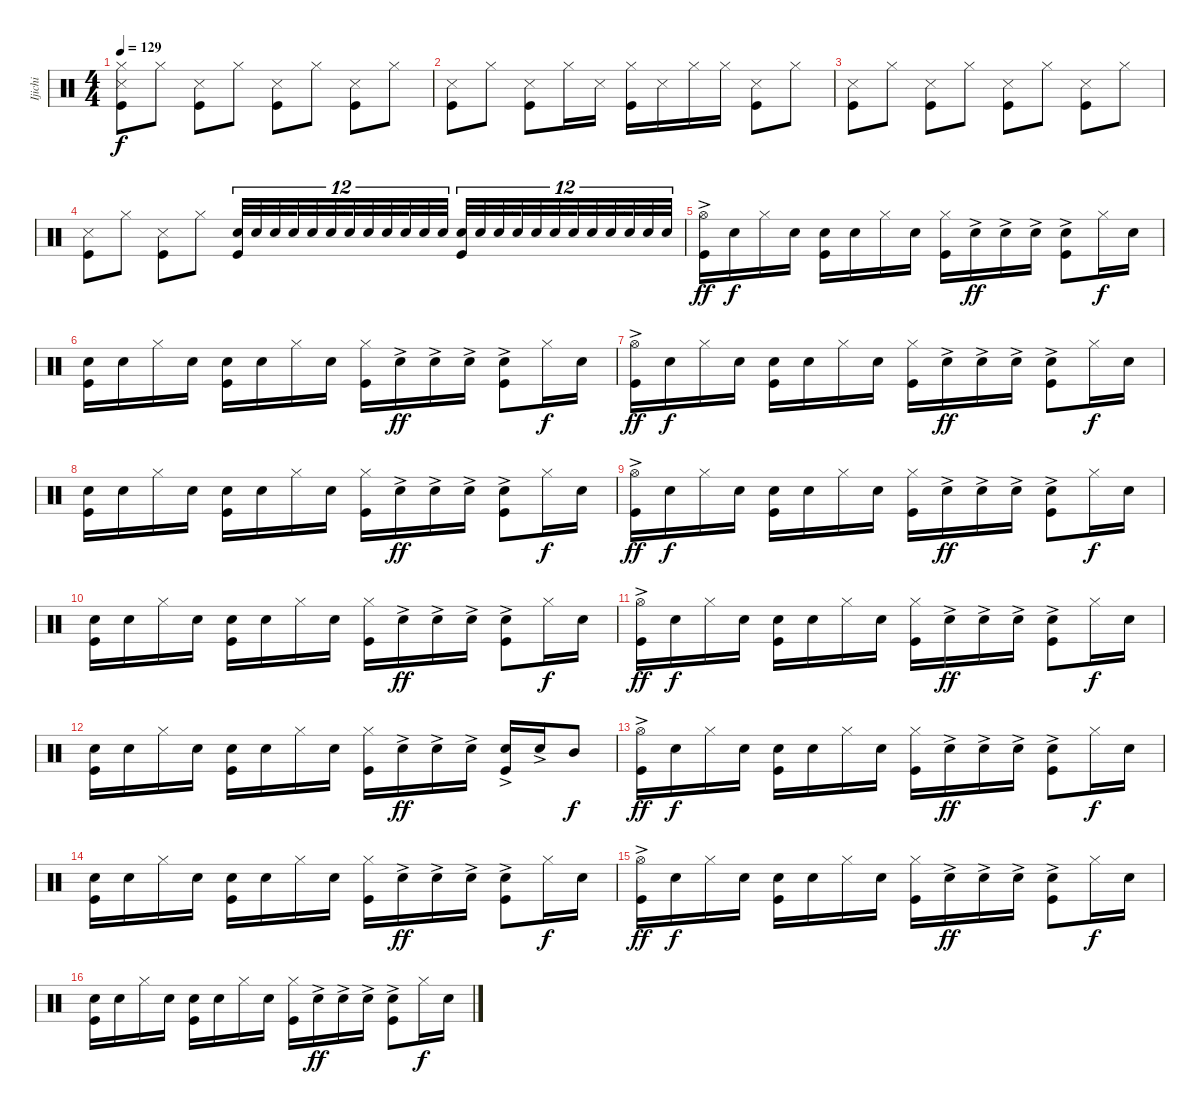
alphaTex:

\track ("Ijichi" "Ijichi") {instrument percussion}
\staff {score}
\articulation defaults
\ts (4 4)
\tempo 129
\clef neutral
\ks c
("Hi-Hat (closed)" "Snare (side stick) 3" "Kick (hit)").8{dy f} "Hi-Hat (closed)".8 ("Snare (side stick) 3" "Kick (hit)").8 "Hi-Hat (closed)".8 ("Snare (side stick) 3" "Kick (hit)").8 "Hi-Hat (closed)".8 ("Snare (side stick) 3" "Kick (hit)").8 "Hi-Hat (closed)".8 |
("Snare (side stick) 3" "Kick (hit)").8 "Hi-Hat (closed)".8 ("Snare (side stick) 3" "Kick (hit)").8 "Hi-Hat (closed)".16 "Snare (side stick) 3".16 ("Hi-Hat (closed)" "Kick (hit)").16 "Snare (side stick) 3".16 "Hi-Hat (closed)".16 "Hi-Hat (closed)".16 ("Snare (side stick) 3" "Kick (hit)").8 "Hi-Hat (closed)".8 |
("Snare (side stick) 3" "Kick (hit)").8 "Hi-Hat (closed)".8 ("Snare (side stick) 3" "Kick (hit)").8 "Hi-Hat (closed)".8 ("Snare (side stick) 3" "Kick (hit)").8 "Hi-Hat (closed)".8 ("Snare (side stick) 3" "Kick (hit)").8 "Hi-Hat (closed)".8 |
("Snare (side stick) 3" "Kick (hit)").8 "Hi-Hat (closed)".8 ("Snare (side stick) 3" "Kick (hit)").8 "Hi-Hat (closed)".8 ("Snare (hit) 2" "Kick (hit)").32{tu (12 8)} "Snare (hit) 2".32{tu (12 8)} "Snare (hit) 2".32{tu (12 8) beam splitsecondary} "Snare (hit) 2".32{tu (12 8)} "Snare (hit) 2".32{tu (12 8)} "Snare (hit) 2".32{tu (12 8) beam splitsecondary} "Snare (hit) 2".32{tu (12 8)} "Snare (hit) 2".32{tu (12 8)} "Snare (hit) 2".32{tu (12 8) beam splitsecondary} "Snare (hit) 2".32{tu (12 8)} "Snare (hit) 2".32{tu (12 8)} "Snare (hit) 2".32{tu (12 8)} ("Snare (hit) 2" "Kick (hit)").32{tu (12 8)} "Snare (hit) 2".32{tu (12 8)} "Snare (hit) 2".32{tu (12 8) beam splitsecondary} "Snare (hit) 2".32{tu (12 8)} "Snare (hit) 2".32{tu (12 8)} "Snare (hit) 2".32{tu (12 8) beam splitsecondary} "Snare (hit) 2".32{tu (12 8)} "Snare (hit) 2".32{tu (12 8)} "Snare (hit) 2".32{tu (12 8) beam splitsecondary} "Snare (hit) 2".32{tu (12 8)} "Snare (hit) 2".32{tu (12 8)} "Snare (hit) 2".32{tu (12 8)} |
("Hi-Hat (open)"{ac} "Kick (hit)").16{dy ff} "Snare (hit) 2".16{dy f} "Hi-Hat (closed)".16 "Snare (hit) 2".16 ("Snare (hit) 2" "Kick (hit)").16 "Snare (hit) 2".16 "Hi-Hat (closed)".16 "Snare (hit) 2".16 ("Hi-Hat (closed)" "Kick (hit)").16 "Snare (hit) 2"{ac}.16{dy ff} "Snare (hit) 2"{ac}.16 "Snare (hit) 2"{ac}.16 ("Snare (hit) 2"{ac} "Kick (hit)").8 "Hi-Hat (closed)".16{dy f} "Snare (hit) 2".16 |
("Snare (hit) 2" "Kick (hit)").16 "Snare (hit) 2".16 "Hi-Hat (closed)".16 "Snare (hit) 2".16 ("Snare (hit) 2" "Kick (hit)").16 "Snare (hit) 2".16 "Hi-Hat (closed)".16 "Snare (hit) 2".16 ("Hi-Hat (closed)" "Kick (hit)").16 "Snare (hit) 2"{ac}.16{dy ff} "Snare (hit) 2"{ac}.16 "Snare (hit) 2"{ac}.16 ("Snare (hit) 2"{ac} "Kick (hit)").8 "Hi-Hat (closed)".16{dy f} "Snare (hit) 2".16 |
("Hi-Hat (open)"{ac} "Kick (hit)").16{dy ff} "Snare (hit) 2".16{dy f} "Hi-Hat (closed)".16 "Snare (hit) 2".16 ("Snare (hit) 2" "Kick (hit)").16 "Snare (hit) 2".16 "Hi-Hat (closed)".16 "Snare (hit) 2".16 ("Hi-Hat (closed)" "Kick (hit)").16 "Snare (hit) 2"{ac}.16{dy ff} "Snare (hit) 2"{ac}.16 "Snare (hit) 2"{ac}.16 ("Snare (hit) 2"{ac} "Kick (hit)").8 "Hi-Hat (closed)".16{dy f} "Snare (hit) 2".16 |
("Snare (hit) 2" "Kick (hit)").16 "Snare (hit) 2".16 "Hi-Hat (closed)".16 "Snare (hit) 2".16 ("Snare (hit) 2" "Kick (hit)").16 "Snare (hit) 2".16 "Hi-Hat (closed)".16 "Snare (hit) 2".16 ("Hi-Hat (closed)" "Kick (hit)").16 "Snare (hit) 2"{ac}.16{dy ff} "Snare (hit) 2"{ac}.16 "Snare (hit) 2"{ac}.16 ("Snare (hit) 2"{ac} "Kick (hit)").8 "Hi-Hat (closed)".16{dy f} "Snare (hit) 2".16 |
("Hi-Hat (open)"{ac} "Kick (hit)").16{dy ff} "Snare (hit) 2".16{dy f} "Hi-Hat (closed)".16 "Snare (hit) 2".16 ("Snare (hit) 2" "Kick (hit)").16 "Snare (hit) 2".16 "Hi-Hat (closed)".16 "Snare (hit) 2".16 ("Hi-Hat (closed)" "Kick (hit)").16 "Snare (hit) 2"{ac}.16{dy ff} "Snare (hit) 2"{ac}.16 "Snare (hit) 2"{ac}.16 ("Snare (hit) 2"{ac} "Kick (hit)").8 "Hi-Hat (closed)".16{dy f} "Snare (hit) 2".16 |
("Snare (hit) 2" "Kick (hit)").16 "Snare (hit) 2".16 "Hi-Hat (closed)".16 "Snare (hit) 2".16 ("Snare (hit) 2" "Kick (hit)").16 "Snare (hit) 2".16 "Hi-Hat (closed)".16 "Snare (hit) 2".16 ("Hi-Hat (closed)" "Kick (hit)").16 "Snare (hit) 2"{ac}.16{dy ff} "Snare (hit) 2"{ac}.16 "Snare (hit) 2"{ac}.16 ("Snare (hit) 2"{ac} "Kick (hit)").8 "Hi-Hat (closed)".16{dy f} "Snare (hit) 2".16 |
("Hi-Hat (open)"{ac} "Kick (hit)").16{dy ff} "Snare (hit) 2".16{dy f} "Hi-Hat (closed)".16 "Snare (hit) 2".16 ("Snare (hit) 2" "Kick (hit)").16 "Snare (hit) 2".16 "Hi-Hat (closed)".16 "Snare (hit) 2".16 ("Hi-Hat (closed)" "Kick (hit)").16 "Snare (hit) 2"{ac}.16{dy ff} "Snare (hit) 2"{ac}.16 "Snare (hit) 2"{ac}.16 ("Snare (hit) 2"{ac} "Kick (hit)").8 "Hi-Hat (closed)".16{dy f} "Snare (hit) 2".16 |
("Snare (hit) 2" "Kick (hit)").16 "Snare (hit) 2".16 "Hi-Hat (closed)".16 "Snare (hit) 2".16 ("Snare (hit) 2" "Kick (hit)").16 "Snare (hit) 2".16 "Hi-Hat (closed)".16 "Snare (hit) 2".16 ("Hi-Hat (closed)" "Kick (hit)").16 "Snare (hit) 2"{ac}.16{dy ff} "Snare (hit) 2"{ac}.16 "Snare (hit) 2"{ac}.16 ("Snare (hit) 2"{ac} "Kick (hit)").16 "Snare (hit) 2"{ac}.16 "Mid Tom (hit)".8{dy f} |
("Hi-Hat (open)"{ac} "Kick (hit)").16{dy ff} "Snare (hit) 2".16{dy f} "Hi-Hat (closed)".16 "Snare (hit) 2".16 ("Snare (hit) 2" "Kick (hit)").16 "Snare (hit) 2".16 "Hi-Hat (closed)".16 "Snare (hit) 2".16 ("Hi-Hat (closed)" "Kick (hit)").16 "Snare (hit) 2"{ac}.16{dy ff} "Snare (hit) 2"{ac}.16 "Snare (hit) 2"{ac}.16 ("Snare (hit) 2"{ac} "Kick (hit)").8 "Hi-Hat (closed)".16{dy f} "Snare (hit) 2".16 |
("Snare (hit) 2" "Kick (hit)").16 "Snare (hit) 2".16 "Hi-Hat (closed)".16 "Snare (hit) 2".16 ("Snare (hit) 2" "Kick (hit)").16 "Snare (hit) 2".16 "Hi-Hat (closed)".16 "Snare (hit) 2".16 ("Hi-Hat (closed)" "Kick (hit)").16 "Snare (hit) 2"{ac}.16{dy ff} "Snare (hit) 2"{ac}.16 "Snare (hit) 2"{ac}.16 ("Snare (hit) 2"{ac} "Kick (hit)").8 "Hi-Hat (closed)".16{dy f} "Snare (hit) 2".16 |
("Hi-Hat (open)"{ac} "Kick (hit)").16{dy ff} "Snare (hit) 2".16{dy f} "Hi-Hat (closed)".16 "Snare (hit) 2".16 ("Snare (hit) 2" "Kick (hit)").16 "Snare (hit) 2".16 "Hi-Hat (closed)".16 "Snare (hit) 2".16 ("Hi-Hat (closed)" "Kick (hit)").16 "Snare (hit) 2"{ac}.16{dy ff} "Snare (hit) 2"{ac}.16 "Snare (hit) 2"{ac}.16 ("Snare (hit) 2"{ac} "Kick (hit)").8 "Hi-Hat (closed)".16{dy f} "Snare (hit) 2".16 |
("Snare (hit) 2" "Kick (hit)").16 "Snare (hit) 2".16 "Hi-Hat (closed)".16 "Snare (hit) 2".16 ("Snare (hit) 2" "Kick (hit)").16 "Snare (hit) 2".16 "Hi-Hat (closed)".16 "Snare (hit) 2".16 ("Hi-Hat (closed)" "Kick (hit)").16 "Snare (hit) 2"{ac}.16{dy ff} "Snare (hit) 2"{ac}.16 "Snare (hit) 2"{ac}.16 ("Snare (hit) 2"{ac} "Kick (hit)").8 "Hi-Hat (closed)".16{dy f} "Snare (hit) 2".16
